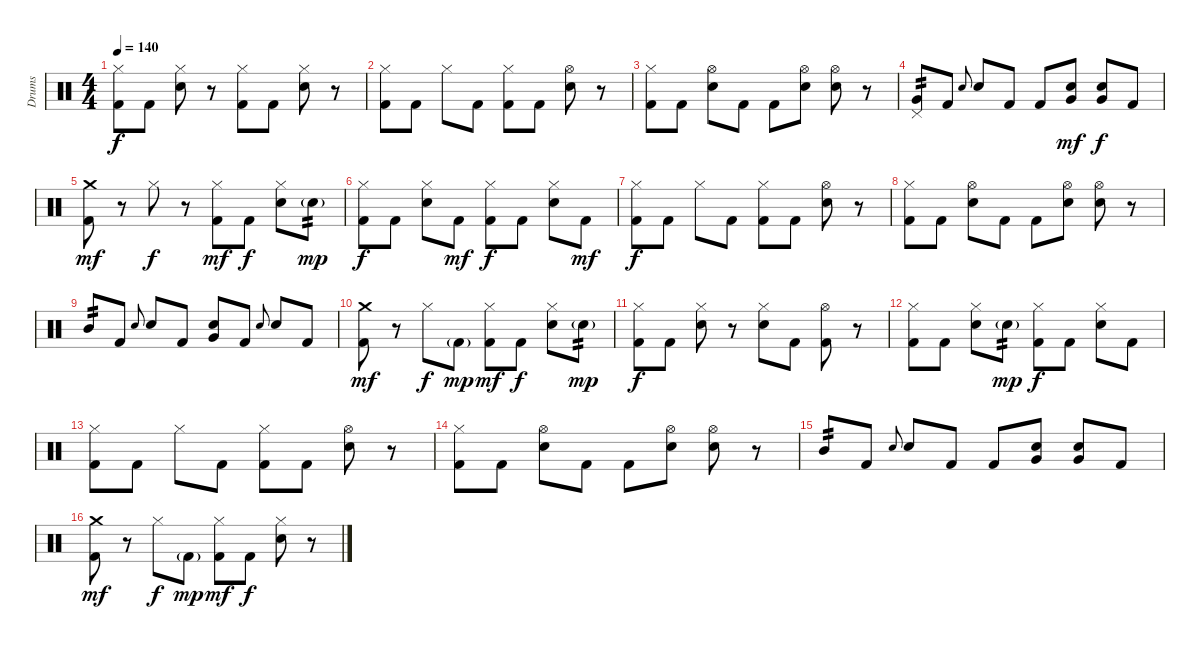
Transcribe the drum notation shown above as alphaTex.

\track ("Drums" "Drums") {instrument percussion}
\staff {score}
\articulation defaults
\ts (4 4)
\tempo 140
\clef neutral
\ks c
("Hi-Hat (closed)" "Kick (hit) 2").8{dy f} "Kick (hit) 2".8 ("Hi-Hat (closed)" "Snare (hit) 2").8 r.8 ("Hi-Hat (closed)" "Kick (hit) 2").8 "Kick (hit) 2".8 ("Hi-Hat (closed)" "Snare (hit) 2").8 r.8 |
("Hi-Hat (closed)" "Kick (hit) 2").8 "Kick (hit) 2".8 "Hi-Hat (closed)".8 "Kick (hit) 2".8 ("Hi-Hat (closed)" "Kick (hit) 2").8 "Kick (hit) 2".8 ("Hi-Hat (open)" "Snare (hit) 2").8 r.8 |
("Hi-Hat (closed)" "Kick (hit) 2").8 "Kick (hit) 2".8 ("Hi-Hat (open)" "Snare (hit) 2").8 "Kick (hit) 2".8 "Kick (hit) 2".8 ("Hi-Hat (open)" "Snare (hit) 2").8 ("Hi-Hat (open)" "Snare (hit) 2").8 r.8 |
("Pedal Hi-Hat (hit)" "Very Low Tom (hit)").8{tp 2} "Kick (hit) 2".8 "Snare (hit) 2".8{gr onbeat} "Snare (hit) 2".8 "Kick (hit) 2".8 "Kick (hit) 2".8 ("Snare (hit) 2" "Very Low Tom (hit)").8{bu 60 dy mf} ("Snare (hit) 2" "Very Low Tom (hit)").8{bu 60 dy f} "Kick (hit) 2".8 |
("Crash medium (hit)" "Kick (hit) 2").8{dy mf} r.8 "Hi-Hat (closed)".8{dy f} r.8 ("Hi-Hat (closed)" "Kick (hit) 2").8{dy mf} "Kick (hit) 2".8{dy f} ("Hi-Hat (closed)" "Snare (hit) 2").8 "Snare (hit) 2"{g}.8{tp 2 dy mp} |
("Hi-Hat (closed)" "Kick (hit) 2").8{dy f} "Kick (hit) 2".8 ("Hi-Hat (closed)" "Snare (hit) 2").8 "Kick (hit) 2".8{dy mf} ("Hi-Hat (closed)" "Kick (hit) 2").8{dy f} "Kick (hit) 2".8 ("Hi-Hat (closed)" "Snare (hit) 2").8 "Kick (hit) 2".8{dy mf} |
("Hi-Hat (closed)" "Kick (hit) 2").8{dy f} "Kick (hit) 2".8 "Hi-Hat (closed)".8 "Kick (hit) 2".8 ("Hi-Hat (closed)" "Kick (hit) 2").8 "Kick (hit) 2".8 ("Hi-Hat (open)" "Snare (hit) 2").8 r.8 |
("Hi-Hat (closed)" "Kick (hit) 2").8 "Kick (hit) 2".8 ("Hi-Hat (open)" "Snare (hit) 2").8 "Kick (hit) 2".8 "Kick (hit) 2".8 ("Hi-Hat (open)" "Snare (hit) 2").8 ("Hi-Hat (open)" "Snare (hit) 2").8 r.8 |
"Mid Tom (hit)".8{tp 2} "Kick (hit) 2".8 "Snare (hit) 2".8{gr onbeat} "Snare (hit) 2".8 "Kick (hit) 2".8 ("Snare (hit) 2" "Very Low Tom (hit)").8{bu 60} "Kick (hit) 2".8 "Snare (hit) 2".8{gr onbeat} "Snare (hit) 2".8 "Kick (hit) 2".8 |
("Crash medium (hit)" "Kick (hit) 2").8{dy mf} r.8 "Hi-Hat (closed)".8{dy f} "Kick (hit) 2"{g}.8{dy mp} ("Hi-Hat (closed)" "Kick (hit) 2").8{dy mf} "Kick (hit) 2".8{dy f} ("Hi-Hat (closed)" "Snare (hit) 2").8 "Snare (hit) 2"{g}.8{tp 2 dy mp} |
("Hi-Hat (closed)" "Kick (hit) 2").8{dy f} "Kick (hit) 2".8 ("Hi-Hat (closed)" "Snare (hit) 2").8 r.8 ("Hi-Hat (closed)" "Snare (hit) 2").8 "Kick (hit) 2".8 ("Hi-Hat (open)" "Kick (hit) 2").8 r.8 |
("Hi-Hat (closed)" "Kick (hit) 2").8 "Kick (hit) 2".8 ("Hi-Hat (closed)" "Snare (hit) 2").8 "Snare (hit) 2"{g}.8{tp 2 dy mp} ("Hi-Hat (closed)" "Kick (hit) 2").8{dy f} "Kick (hit) 2".8 ("Hi-Hat (closed)" "Snare (hit) 2").8 "Kick (hit) 2".8 |
("Hi-Hat (closed)" "Kick (hit) 2").8 "Kick (hit) 2".8 "Hi-Hat (closed)".8 "Kick (hit) 2".8 ("Hi-Hat (closed)" "Kick (hit) 2").8 "Kick (hit) 2".8 ("Hi-Hat (open)" "Snare (hit) 2").8 r.8 |
("Hi-Hat (closed)" "Kick (hit) 2").8 "Kick (hit) 2".8 ("Hi-Hat (open)" "Snare (hit) 2").8 "Kick (hit) 2".8 "Kick (hit) 2".8 ("Hi-Hat (open)" "Snare (hit) 2").8 ("Hi-Hat (open)" "Snare (hit) 2").8 r.8 |
"Mid Tom (hit)".8{tp 2} "Kick (hit) 2".8 "Snare (hit) 2".8{gr onbeat} "Snare (hit) 2".8 "Kick (hit) 2".8 "Kick (hit) 2".8 ("Snare (hit) 2" "Very Low Tom (hit)").8{bu 60} ("Snare (hit) 2" "Very Low Tom (hit)").8{bu 60} "Kick (hit) 2".8 |
("Crash medium (hit)" "Kick (hit) 2").8{dy mf} r.8 "Hi-Hat (closed)".8{dy f} "Kick (hit) 2"{g}.8{dy mp} ("Hi-Hat (closed)" "Kick (hit) 2").8{dy mf} "Kick (hit) 2".8{dy f} ("Hi-Hat (closed)" "Snare (hit) 2").8 r.8
